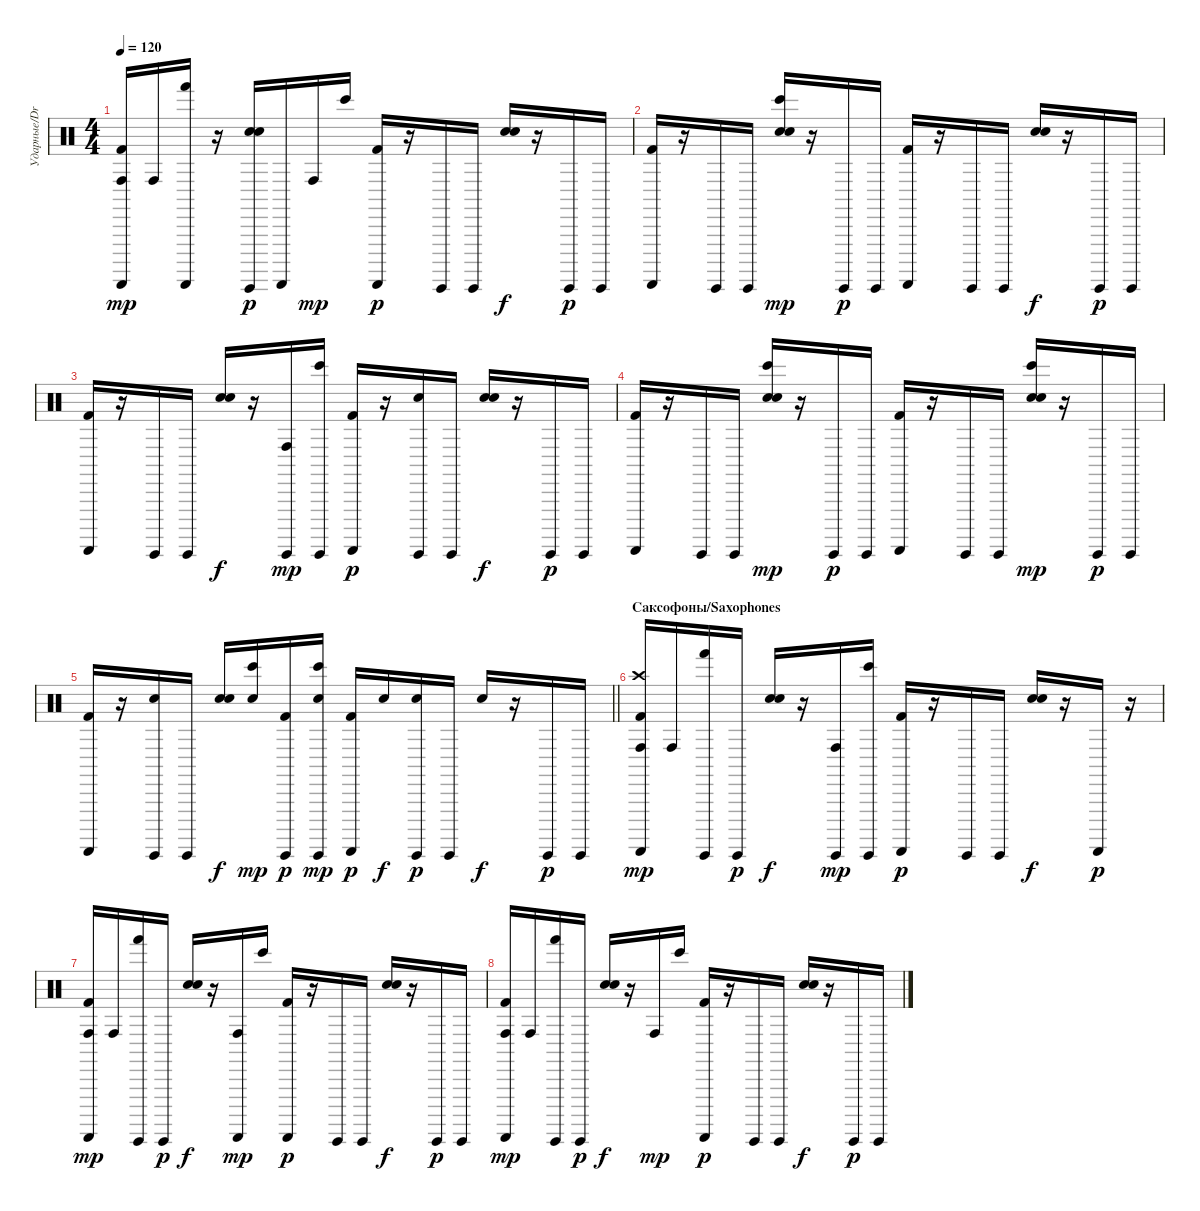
\track ("Ударные/Drums" "Ударные/Dr") {instrument percussion}
\staff {score}
\articulation defaults
\ts (4 4)
\tempo 120
\clef neutral
\ks c
("Guiro (scrap-return)" "Conga high (hit)" "Kick (hit) 2").16{dy mp} "Conga high (hit)".16 ("Guiro (scrap-return)" "Hand (hit)").16 r.16 ("Guiro (hit)" "Hand Clap (hit)" "Snare (hit) 2").16{dy p} "Guiro (scrap-return)".16 "Conga high (hit)".16{dy mp} "Bongo High (hit)".16 ("Guiro (scrap-return)" "Kick (hit) 2").16{dy p} r.16 "Guiro (hit)".16 "Guiro (hit)".16 ("Hand Clap (hit)" "Snare (hit) 2").16{dy f} r.16 "Guiro (hit)".16{dy p} "Guiro (hit)".16 |
("Guiro (scrap-return)" "Kick (hit) 2").16 r.16 "Guiro (hit)".16 "Guiro (hit)".16 ("Bongo High (hit)" "Hand Clap (hit)" "Snare (hit) 2").16{dy mp} r.16 "Guiro (hit)".16{dy p} "Guiro (hit)".16 ("Guiro (scrap-return)" "Kick (hit) 2").16 r.16 "Guiro (hit)".16 "Guiro (hit)".16 ("Hand Clap (hit)" "Snare (hit) 2").16{dy f} r.16 "Guiro (hit)".16{dy p} "Guiro (hit)".16 |
("Guiro (scrap-return)" "Kick (hit) 2").16 r.16 "Guiro (hit)".16 "Guiro (hit)".16 ("Hand Clap (hit)" "Snare (hit) 2").16{dy f} r.16 ("Guiro (hit)" "Conga high (hit)").16{dy mp} ("Guiro (hit)" "Bongo High (hit)").16 ("Guiro (scrap-return)" "Kick (hit) 2").16{dy p} r.16 ("Guiro (hit)" "Hand Clap (hit)").16 "Guiro (hit)".16 ("Hand Clap (hit)" "Snare (hit) 2").16{dy f} r.16 "Guiro (hit)".16{dy p} "Guiro (hit)".16 |
("Guiro (scrap-return)" "Kick (hit) 2").16 r.16 "Guiro (hit)".16 "Guiro (hit)".16 ("Bongo High (hit)" "Hand Clap (hit)" "Snare (hit) 2").16{dy mp} r.16 "Guiro (hit)".16{dy p} "Guiro (hit)".16 ("Guiro (scrap-return)" "Kick (hit) 2").16 r.16 "Guiro (hit)".16 "Guiro (hit)".16 ("Bongo High (hit)" "Hand Clap (hit)" "Snare (hit) 2").16{dy mp} r.16 "Guiro (hit)".16{dy p} "Guiro (hit)".16 |
\barLineRight lightlight
("Guiro (scrap-return)" "Kick (hit) 2").16 r.16 ("Guiro (hit)" "Hand Clap (hit)").16 "Guiro (hit)".16 ("Hand Clap (hit)" "Snare (hit) 2").16{dy f} ("Bongo High (hit)" "Hand Clap (hit)").16{dy mp} ("Guiro (hit)" "Kick (hit) 2").16{dy p} ("Guiro (hit)" "Bongo High (hit)" "Hand Clap (hit)").16{dy mp} ("Guiro (scrap-return)" "Kick (hit) 2").16{dy p} "Hand Clap (hit)".16{dy f} ("Guiro (hit)" "Snare (hit) 2").16{dy p} "Guiro (hit)".16 "Snare (hit) 2".16{dy f} r.16 "Guiro (hit)".16{dy p} "Guiro (hit)".16 |
\section ("" "Саксофоны/Saxophones")
("Crash high (hit)" "Guiro (scrap-return)" "Conga high (hit)" "Kick (hit) 2").16{dy mp} "Conga high (hit)".16 ("Guiro (hit)" "Hand (hit)").16 "Guiro (hit)".16{dy p} ("Hand Clap (hit)" "Snare (hit) 2").16{dy f} r.16 ("Guiro (hit)" "Conga high (hit)").16{dy mp} ("Guiro (hit)" "Bongo High (hit)").16 ("Guiro (scrap-return)" "Kick (hit) 2").16{dy p} r.16 "Guiro (hit)".16 "Guiro (hit)".16 ("Hand Clap (hit)" "Snare (hit) 2").16{dy f} r.16 "Guiro (scrap-return)".16{dy p} r.16 |
("Guiro (scrap-return)" "Conga high (hit)" "Kick (hit) 2").16{dy mp} "Conga high (hit)".16 ("Guiro (hit)" "Hand (hit)").16 "Guiro (hit)".16{dy p} ("Hand Clap (hit)" "Snare (hit) 2").16{dy f} r.16 ("Guiro (scrap-return)" "Conga high (hit)").16{dy mp} "Bongo High (hit)".16 ("Guiro (scrap-return)" "Kick (hit) 2").16{dy p} r.16 "Guiro (hit)".16 "Guiro (hit)".16 ("Hand Clap (hit)" "Snare (hit) 2").16{dy f} r.16 "Guiro (hit)".16{dy p} "Guiro (hit)".16 |
("Guiro (scrap-return)" "Conga high (hit)" "Kick (hit) 2").16{dy mp} "Conga high (hit)".16 ("Guiro (hit)" "Hand (hit)").16 "Guiro (hit)".16{dy p} ("Hand Clap (hit)" "Snare (hit) 2").16{dy f} r.16 "Conga high (hit)".16{dy mp} "Bongo High (hit)".16 ("Guiro (scrap-return)" "Kick (hit) 2").16{dy p} r.16 "Guiro (hit)".16 "Guiro (hit)".16 ("Hand Clap (hit)" "Snare (hit) 2").16{dy f} r.16 "Guiro (hit)".16{dy p} "Guiro (hit)".16
